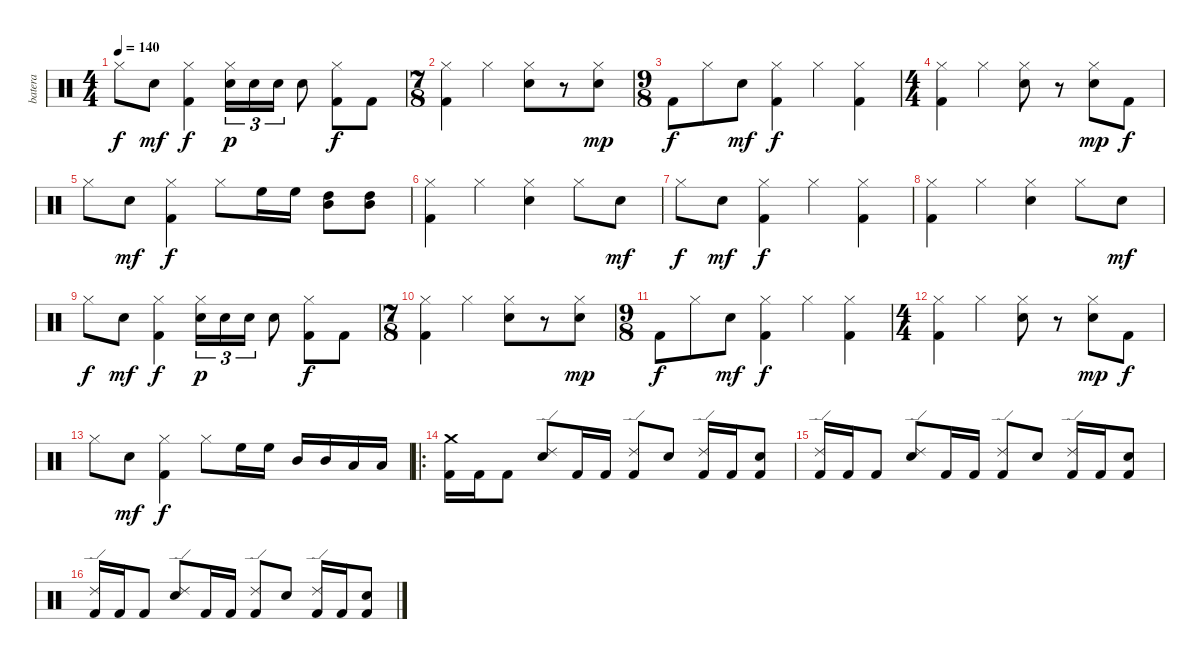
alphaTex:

\track ("batera" "batera") {instrument percussion}
\staff {score}
\articulation defaults
\ts (4 4)
\tempo 140
\clef neutral
\ks c "Hi-Hat (closed)".8{dy f} "Electric Snare (hit)".8{dy mf}
("Hi-Hat (closed)" "Kick (hit) 2").4{dy f} ("Hi-Hat (closed)" "Electric Snare (hit)").16{tu (3 2) dy p} "Electric Snare (hit)".16{tu (3 2)} "Electric Snare (hit)".16{tu (3 2)} "Electric Snare (hit)".8 ("Hi-Hat (closed)" "Kick (hit) 2").8{dy f} "Kick (hit) 2".8 |
\ts (7 8)
("Hi-Hat (closed)" "Kick (hit) 2").4 "Hi-Hat (closed)".4 ("Hi-Hat (closed)" "Electric Snare (hit)").8 r.8 ("Hi-Hat (closed)" "Electric Snare (hit)").8{dy mp} |
\ts (9 8)
"Kick (hit) 2".8{dy f} "Hi-Hat (closed)".8 "Electric Snare (hit)".8{dy mf} ("Hi-Hat (closed)" "Kick (hit) 2").4{dy f} "Hi-Hat (closed)".4 ("Hi-Hat (closed)" "Kick (hit) 2").4 |
\ts (4 4)
("Hi-Hat (closed)" "Kick (hit) 2").4 "Hi-Hat (closed)".4 ("Hi-Hat (closed)" "Electric Snare (hit)").8 r.8 ("Hi-Hat (closed)" "Electric Snare (hit)").8{dy mp} "Kick (hit) 2".8{dy f} |
"Hi-Hat (closed)".8 "Electric Snare (hit)".8{dy mf} ("Hi-Hat (closed)" "Kick (hit) 2").4{dy f} "Hi-Hat (closed)".8 "High Floor Tom (hit)".16 "High Floor Tom (hit)".16 ("High Tom (hit)" "Mid Tom (hit)").8 ("High Tom (hit)" "Mid Tom (hit)").8 |
("Hi-Hat (closed)" "Kick (hit) 2").4 "Hi-Hat (closed)".4 ("Hi-Hat (closed)" "Electric Snare (hit)").4 "Hi-Hat (closed)".8 "Electric Snare (hit)".8{dy mf} |
"Hi-Hat (closed)".8{dy f} "Electric Snare (hit)".8{dy mf} ("Hi-Hat (closed)" "Kick (hit) 2").4{dy f} "Hi-Hat (closed)".4 ("Hi-Hat (closed)" "Kick (hit) 2").4 |
("Hi-Hat (closed)" "Kick (hit) 2").4 "Hi-Hat (closed)".4 ("Hi-Hat (closed)" "Electric Snare (hit)").4 "Hi-Hat (closed)".8 "Electric Snare (hit)".8{dy mf} |
"Hi-Hat (closed)".8{dy f} "Electric Snare (hit)".8{dy mf} ("Hi-Hat (closed)" "Kick (hit) 2").4{dy f} ("Hi-Hat (closed)" "Electric Snare (hit)").16{tu (3 2) dy p} "Electric Snare (hit)".16{tu (3 2)} "Electric Snare (hit)".16{tu (3 2)} "Electric Snare (hit)".8 ("Hi-Hat (closed)" "Kick (hit) 2").8{dy f} "Kick (hit) 2".8 |
\ts (7 8)
("Hi-Hat (closed)" "Kick (hit) 2").4 "Hi-Hat (closed)".4 ("Hi-Hat (closed)" "Electric Snare (hit)").8 r.8 ("Hi-Hat (closed)" "Electric Snare (hit)").8{dy mp} |
\ts (9 8)
"Kick (hit) 2".8{dy f} "Hi-Hat (closed)".8 "Electric Snare (hit)".8{dy mf} ("Hi-Hat (closed)" "Kick (hit) 2").4{dy f} "Hi-Hat (closed)".4 ("Hi-Hat (closed)" "Kick (hit) 2").4 |
\ts (4 4)
("Hi-Hat (closed)" "Kick (hit) 2").4 "Hi-Hat (closed)".4 ("Hi-Hat (closed)" "Electric Snare (hit)").8 r.8 ("Hi-Hat (closed)" "Electric Snare (hit)").8{dy mp} "Kick (hit) 2".8{dy f} |
"Hi-Hat (closed)".8 "Electric Snare (hit)".8{dy mf} ("Hi-Hat (closed)" "Kick (hit) 2").4{dy f} "Hi-Hat (closed)".8 "High Floor Tom (hit)".16 "High Floor Tom (hit)".16 "Mid Tom (hit)".16 "Mid Tom (hit)".16 "Low Tom (hit)".16 "Low Tom (hit)".16 |
\ro
("Crash medium (hit)" "Kick (hit) 2").16 "Kick (hit) 2".16 "Kick (hit) 2".8 ("Ride (edge) 2" "Electric Snare (hit)").8 "Kick (hit) 2".16 "Kick (hit) 2".16 ("Ride (edge) 2" "Kick (hit) 2").8 "Electric Snare (hit)".8 ("Ride (edge) 2" "Kick (hit) 2").16 "Kick (hit) 2".16 ("Electric Snare (hit)" "Kick (hit) 2").8 |
("Ride (edge) 2" "Kick (hit) 2").16 "Kick (hit) 2".16 "Kick (hit) 2".8 ("Ride (edge) 2" "Electric Snare (hit)").8 "Kick (hit) 2".16 "Kick (hit) 2".16 ("Ride (edge) 2" "Kick (hit) 2").8 "Electric Snare (hit)".8 ("Ride (edge) 2" "Kick (hit) 2").16 "Kick (hit) 2".16 ("Electric Snare (hit)" "Kick (hit) 2").8 |
("Ride (edge) 2" "Kick (hit) 2").16 "Kick (hit) 2".16 "Kick (hit) 2".8 ("Ride (edge) 2" "Electric Snare (hit)").8 "Kick (hit) 2".16 "Kick (hit) 2".16 ("Ride (edge) 2" "Kick (hit) 2").8 "Electric Snare (hit)".8 ("Ride (edge) 2" "Kick (hit) 2").16 "Kick (hit) 2".16 ("Electric Snare (hit)" "Kick (hit) 2").8
